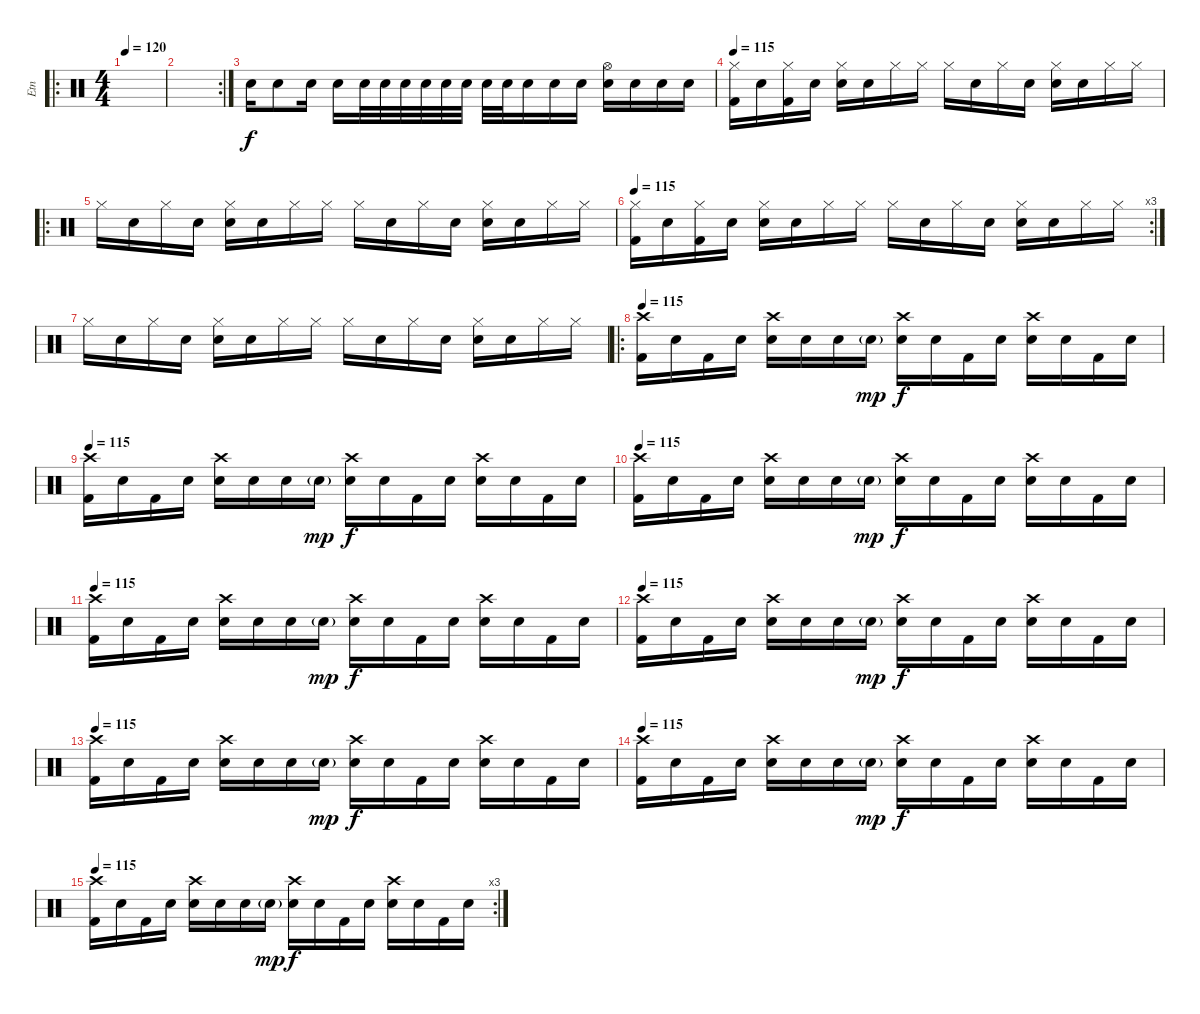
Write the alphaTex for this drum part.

\track ("Etn" "Etn") {instrument percussion}
\staff {score}
\articulation defaults
\ro
\ts (4 4)
\tempo 120
\clef neutral
\ks c
|
\rc 2
|
"Electric Snare (hit)".16 "Electric Snare (hit)".8 "Electric Snare (hit)".16 "Electric Snare (hit)".16 "Electric Snare (hit)".32 "Electric Snare (hit)".32 "Electric Snare (hit)".32 "Electric Snare (hit)".32 "Electric Snare (hit)".32 "Electric Snare (hit)".32 "Electric Snare (hit)".32 "Snare (hit)".32 "Electric Snare (hit)".16 "Snare (hit)".16 "Electric Snare (hit)".16 ("Hi-Hat (open)" "Electric Snare (hit)").16 "Snare (hit)".16 "Electric Snare (hit)".16 "Snare (hit)".16 |
\tempo 115
("Hi-Hat (closed)" "Kick (hit) 2").16{volume 16 balance 8} "Snare (hit)".16 ("Hi-Hat (closed)" "Kick (hit) 2").16 "Snare (hit)".16 ("Hi-Hat (closed)" "Electric Snare (hit)").16 "Snare (hit)".16 "Hi-Hat (closed)".16 "Hi-Hat (closed)".16 "Hi-Hat (closed)".16 "Snare (hit)".16 "Hi-Hat (closed)".16 "Snare (hit)".16 ("Hi-Hat (closed)" "Electric Snare (hit)").16 "Snare (hit)".16 "Hi-Hat (closed)".16 "Hi-Hat (closed)".16 |
\ro "Hi-Hat (closed)".16 "Snare (hit)".16 "Hi-Hat (closed)".16 "Snare (hit)".16
("Hi-Hat (closed)" "Electric Snare (hit)").16 "Snare (hit)".16 "Hi-Hat (closed)".16 "Hi-Hat (closed)".16 "Hi-Hat (closed)".16 "Snare (hit)".16 "Hi-Hat (closed)".16 "Snare (hit)".16 ("Hi-Hat (closed)" "Electric Snare (hit)").16 "Snare (hit)".16 "Hi-Hat (closed)".16 "Hi-Hat (closed)".16 |
\rc 3
\tempo 115
("Hi-Hat (closed)" "Kick (hit) 2").16{volume 16 balance 8} "Snare (hit)".16 ("Hi-Hat (closed)" "Kick (hit) 2").16 "Snare (hit)".16 ("Hi-Hat (closed)" "Electric Snare (hit)").16 "Snare (hit)".16 "Hi-Hat (closed)".16 "Hi-Hat (closed)".16 "Hi-Hat (closed)".16 "Snare (hit)".16 "Hi-Hat (closed)".16 "Snare (hit)".16 ("Hi-Hat (closed)" "Electric Snare (hit)").16 "Snare (hit)".16 "Hi-Hat (closed)".16 "Hi-Hat (closed)".16 |
"Hi-Hat (closed)".16 "Snare (hit)".16 "Hi-Hat (closed)".16 "Snare (hit)".16 ("Hi-Hat (closed)" "Electric Snare (hit)").16 "Snare (hit)".16 "Hi-Hat (closed)".16 "Hi-Hat (closed)".16 "Hi-Hat (closed)".16 "Snare (hit)".16 "Hi-Hat (closed)".16 "Snare (hit)".16 ("Hi-Hat (closed)" "Electric Snare (hit)").16 "Snare (hit)".16 "Hi-Hat (closed)".16 "Hi-Hat (closed)".16 |
\ro
\tempo 115
("Crash high (hit)" "Kick (hit) 2").16{volume 16 balance 8} "Snare (hit)".16 "Kick (hit) 2".16 "Snare (hit)".16 ("Crash high (hit)" "Electric Snare (hit)").16 "Snare (hit)".16 "Snare (hit)".16 "Electric Snare (hit)"{g}.16{dy mp} ("Crash high (hit)" "Electric Snare (hit)").16{dy f} "Snare (hit)".16 "Kick (hit) 2".16 "Snare (hit)".16 ("Crash high (hit)" "Electric Snare (hit)").16 "Snare (hit)".16 "Kick (hit) 2".16 "Snare (hit)".16 |
\tempo 115
("Crash high (hit)" "Kick (hit) 2").16{volume 16 balance 8} "Snare (hit)".16 "Kick (hit) 2".16 "Snare (hit)".16 ("Crash high (hit)" "Electric Snare (hit)").16 "Snare (hit)".16 "Snare (hit)".16 "Electric Snare (hit)"{g}.16{dy mp} ("Crash high (hit)" "Electric Snare (hit)").16{dy f} "Snare (hit)".16 "Kick (hit) 2".16 "Snare (hit)".16 ("Crash high (hit)" "Electric Snare (hit)").16 "Snare (hit)".16 "Kick (hit) 2".16 "Snare (hit)".16 |
\tempo 115
("Crash high (hit)" "Kick (hit) 2").16{volume 16 balance 8} "Snare (hit)".16 "Kick (hit) 2".16 "Snare (hit)".16 ("Crash high (hit)" "Electric Snare (hit)").16 "Snare (hit)".16 "Snare (hit)".16 "Electric Snare (hit)"{g}.16{dy mp} ("Crash high (hit)" "Electric Snare (hit)").16{dy f} "Snare (hit)".16 "Kick (hit) 2".16 "Snare (hit)".16 ("Crash high (hit)" "Electric Snare (hit)").16 "Snare (hit)".16 "Kick (hit) 2".16 "Snare (hit)".16 |
\tempo 115
("Crash high (hit)" "Kick (hit) 2").16{volume 16 balance 8} "Snare (hit)".16 "Kick (hit) 2".16 "Snare (hit)".16 ("Crash high (hit)" "Electric Snare (hit)").16 "Snare (hit)".16 "Snare (hit)".16 "Electric Snare (hit)"{g}.16{dy mp} ("Crash high (hit)" "Electric Snare (hit)").16{dy f} "Snare (hit)".16 "Kick (hit) 2".16 "Snare (hit)".16 ("Crash high (hit)" "Electric Snare (hit)").16 "Snare (hit)".16 "Kick (hit) 2".16 "Snare (hit)".16 |
\tempo 115
("Crash high (hit)" "Kick (hit) 2").16{volume 16 balance 8} "Snare (hit)".16 "Kick (hit) 2".16 "Snare (hit)".16 ("Crash high (hit)" "Electric Snare (hit)").16 "Snare (hit)".16 "Snare (hit)".16 "Electric Snare (hit)"{g}.16{dy mp} ("Crash high (hit)" "Electric Snare (hit)").16{dy f} "Snare (hit)".16 "Kick (hit) 2".16 "Snare (hit)".16 ("Crash high (hit)" "Electric Snare (hit)").16 "Snare (hit)".16 "Kick (hit) 2".16 "Snare (hit)".16 |
\tempo 115
("Crash high (hit)" "Kick (hit) 2").16{volume 16 balance 8} "Snare (hit)".16 "Kick (hit) 2".16 "Snare (hit)".16 ("Crash high (hit)" "Electric Snare (hit)").16 "Snare (hit)".16 "Snare (hit)".16 "Electric Snare (hit)"{g}.16{dy mp} ("Crash high (hit)" "Electric Snare (hit)").16{dy f} "Snare (hit)".16 "Kick (hit) 2".16 "Snare (hit)".16 ("Crash high (hit)" "Electric Snare (hit)").16 "Snare (hit)".16 "Kick (hit) 2".16 "Snare (hit)".16 |
\tempo 115
("Crash high (hit)" "Kick (hit) 2").16{volume 16 balance 8} "Snare (hit)".16 "Kick (hit) 2".16 "Snare (hit)".16 ("Crash high (hit)" "Electric Snare (hit)").16 "Snare (hit)".16 "Snare (hit)".16 "Electric Snare (hit)"{g}.16{dy mp} ("Crash high (hit)" "Electric Snare (hit)").16{dy f} "Snare (hit)".16 "Kick (hit) 2".16 "Snare (hit)".16 ("Crash high (hit)" "Electric Snare (hit)").16 "Snare (hit)".16 "Kick (hit) 2".16 "Snare (hit)".16 |
\rc 3
\tempo 115
("Crash high (hit)" "Kick (hit) 2").16{volume 16 balance 8} "Snare (hit)".16 "Kick (hit) 2".16 "Snare (hit)".16 ("Crash high (hit)" "Electric Snare (hit)").16 "Snare (hit)".16 "Snare (hit)".16 "Electric Snare (hit)"{g}.16{dy mp} ("Crash high (hit)" "Electric Snare (hit)").16{dy f} "Snare (hit)".16 "Kick (hit) 2".16 "Snare (hit)".16 ("Crash high (hit)" "Electric Snare (hit)").16 "Snare (hit)".16 "Kick (hit) 2".16 "Snare (hit)".16
